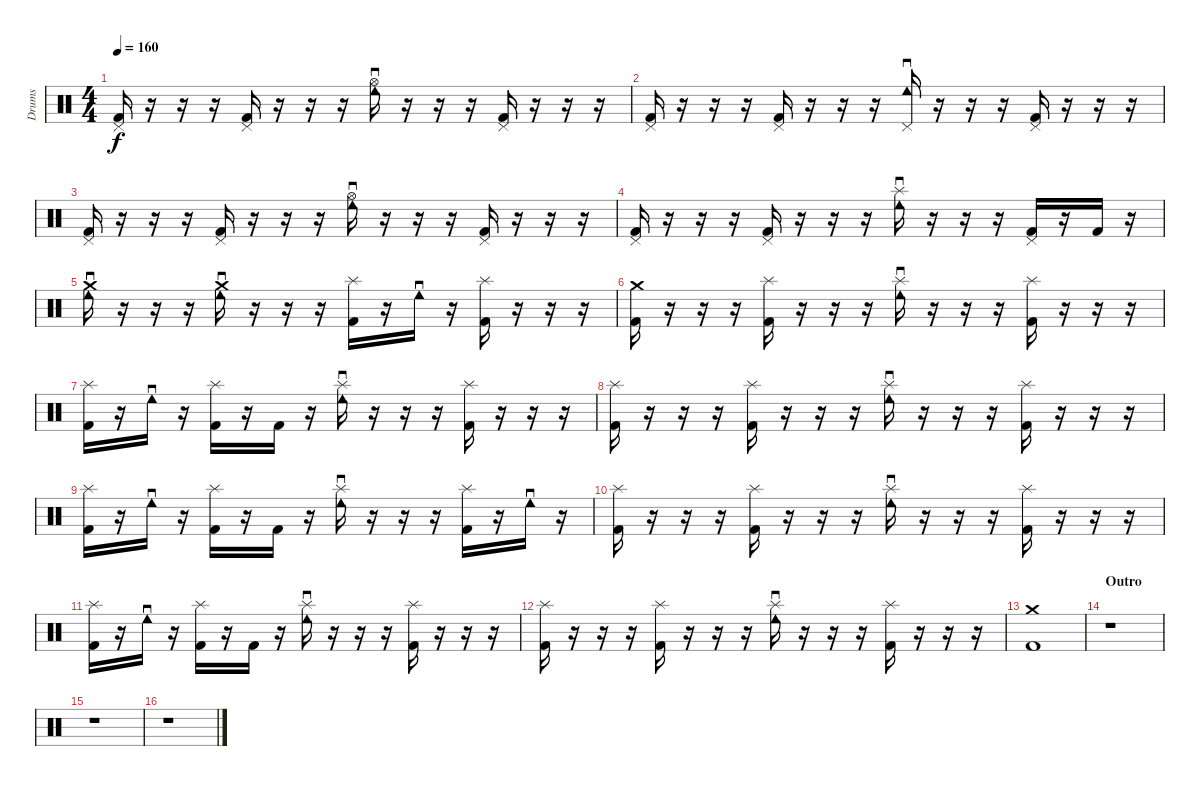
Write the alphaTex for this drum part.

\track ("Drums" "Drums") {instrument percussion}
\staff {score}
\articulation defaults
\ts (4 4)
\tempo 160
\clef neutral
\ks c
("Pedal Hi-Hat (hit)" "Kick (hit) 2").16{dy f} r.16 r.16 r.16 ("Pedal Hi-Hat (hit)" "Kick (hit) 2").16 r.16 r.16 r.16 ("Hi-Hat (open)" "Tambourine (roll)").16 r.16 r.16 r.16 ("Pedal Hi-Hat (hit)" "Kick (hit) 2").16 r.16 r.16 r.16 |
("Pedal Hi-Hat (hit)" "Kick (hit) 2").16 r.16 r.16 r.16 ("Pedal Hi-Hat (hit)" "Kick (hit) 2").16 r.16 r.16 r.16 ("Pedal Hi-Hat (hit)" "Tambourine (roll)").16 r.16 r.16 r.16 ("Pedal Hi-Hat (hit)" "Kick (hit) 2").16 r.16 r.16 r.16 |
("Pedal Hi-Hat (hit)" "Kick (hit) 2").16 r.16 r.16 r.16 ("Pedal Hi-Hat (hit)" "Kick (hit) 2").16 r.16 r.16 r.16 ("Hi-Hat (open)" "Tambourine (roll)").16 r.16 r.16 r.16 ("Pedal Hi-Hat (hit)" "Kick (hit) 2").16 r.16 r.16 r.16 |
("Pedal Hi-Hat (hit)" "Kick (hit) 2").16 r.16 r.16 r.16 ("Pedal Hi-Hat (hit)" "Kick (hit) 2").16 r.16 r.16 r.16 ("Splash (hit)" "Tambourine (roll)").16 r.16 r.16 r.16 ("Pedal Hi-Hat (hit)" "Kick (hit) 2").16 r.16 "Kick (hit) 2".16 r.16 |
("Crash medium (hit)" "Tambourine (roll)").16 r.16 r.16 r.16 ("Crash medium (hit)" "Tambourine (roll)").16 r.16 r.16 r.16 ("Splash (hit)" "Kick (hit) 2").16 r.16 "Tambourine (roll)".16 r.16 ("Splash (hit)" "Kick (hit) 2").16 r.16 r.16 r.16 |
("Crash medium (hit)" "Kick (hit) 2").16 r.16 r.16 r.16 ("Splash (hit)" "Kick (hit) 2").16 r.16 r.16 r.16 ("Splash (hit)" "Tambourine (roll)").16 r.16 r.16 r.16 ("Splash (hit)" "Kick (hit) 2").16 r.16 r.16 r.16 |
("Splash (hit)" "Kick (hit) 2").16 r.16 "Tambourine (roll)".16 r.16 ("Splash (hit)" "Kick (hit) 2").16 r.16 "Kick (hit) 2".16 r.16 ("Splash (hit)" "Tambourine (roll)").16 r.16 r.16 r.16 ("Splash (hit)" "Kick (hit) 2").16 r.16 r.16 r.16 |
("Splash (hit)" "Kick (hit) 2").16 r.16 r.16 r.16 ("Splash (hit)" "Kick (hit) 2").16 r.16 r.16 r.16 ("Splash (hit)" "Tambourine (roll)").16 r.16 r.16 r.16 ("Splash (hit)" "Kick (hit) 2").16 r.16 r.16 r.16 |
("Splash (hit)" "Kick (hit) 2").16 r.16 "Tambourine (roll)".16 r.16 ("Splash (hit)" "Kick (hit) 2").16 r.16 "Kick (hit) 2".16 r.16 ("Splash (hit)" "Tambourine (roll)").16 r.16 r.16 r.16 ("Splash (hit)" "Kick (hit) 2").16 r.16 "Tambourine (roll)".16 r.16 |
("Splash (hit)" "Kick (hit) 2").16 r.16 r.16 r.16 ("Splash (hit)" "Kick (hit) 2").16 r.16 r.16 r.16 ("Splash (hit)" "Tambourine (roll)").16 r.16 r.16 r.16 ("Splash (hit)" "Kick (hit) 2").16 r.16 r.16 r.16 |
("Splash (hit)" "Kick (hit) 2").16 r.16 "Tambourine (roll)".16 r.16 ("Splash (hit)" "Kick (hit) 2").16 r.16 "Kick (hit) 2".16 r.16 ("Splash (hit)" "Tambourine (roll)").16 r.16 r.16 r.16 ("Splash (hit)" "Kick (hit) 2").16 r.16 r.16 r.16 |
("Splash (hit)" "Kick (hit) 2").16 r.16 r.16 r.16 ("Splash (hit)" "Kick (hit) 2").16 r.16 r.16 r.16 ("Splash (hit)" "Tambourine (roll)").16 r.16 r.16 r.16 ("Splash (hit)" "Kick (hit) 2").16 r.16 r.16 r.16 |
("Crash medium (hit)" "Kick (hit) 2").1 |
\section ("" "Outro")
r.1 |
r.1 |
r.1
